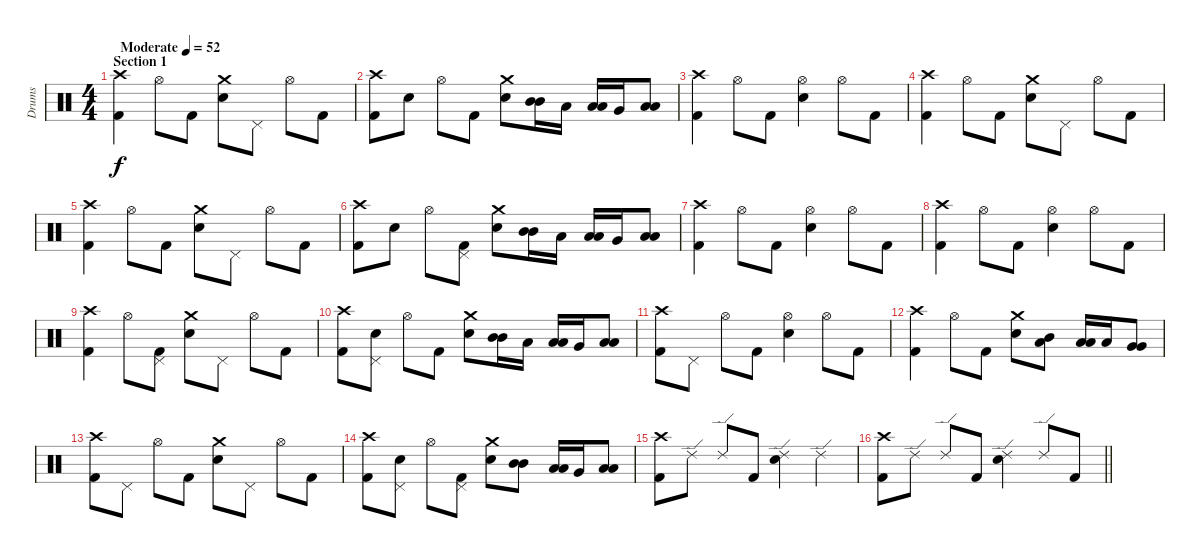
\track ("Drums" "Drums") {instrument percussion}
\staff {score}
\articulation defaults
\ts (4 4)
\section ("" "Section 1")
\tempo (52 "Moderate")
\clef neutral
\ks c
("Crash high (hit)" "Kick (hit) 2").4{dy f} "Hi-Hat (open)".8 "Kick (hit) 2".8 ("Crash medium (hit)" "Electric Snare (hit)").8 "Pedal Hi-Hat (hit)".8 "Hi-Hat (open)".8 "Kick (hit) 2".8 |
("Crash high (hit)" "Kick (hit) 2").8 "Electric Snare (hit)".8 "Hi-Hat (open)".8 "Kick (hit) 2".8 ("Crash medium (hit)" "Electric Snare (hit)").8 ("Mid Tom (hit)" "Mid Tom (hit)").16 "Low Tom (hit)".16 ("Low Tom (hit)" "Low Tom (hit)").16 "Very Low Tom (hit)".16 ("Low Floor Tom (hit)" "Low Floor Tom (hit)").8 |
("Crash high (hit)" "Kick (hit) 2").4 "Hi-Hat (open)".8 "Kick (hit) 2".8 ("Hi-Hat (open)" "Electric Snare (hit)").4 "Hi-Hat (open)".8 "Kick (hit) 2".8 |
("Crash high (hit)" "Kick (hit) 2").4 "Hi-Hat (open)".8 "Kick (hit) 2".8 ("Crash medium (hit)" "Electric Snare (hit)").8 "Pedal Hi-Hat (hit)".8 "Hi-Hat (open)".8 "Kick (hit) 2".8 |
("Crash high (hit)" "Kick (hit) 2").4 "Hi-Hat (open)".8 "Kick (hit) 2".8 ("Crash medium (hit)" "Electric Snare (hit)").8 "Pedal Hi-Hat (hit)".8 "Hi-Hat (open)".8 "Kick (hit) 2".8 |
("Crash high (hit)" "Kick (hit) 2").8 "Electric Snare (hit)".8 "Hi-Hat (open)".8 ("Pedal Hi-Hat (hit)" "Kick (hit) 2").8 ("Crash medium (hit)" "Electric Snare (hit)").8 ("Mid Tom (hit)" "Mid Tom (hit)").16 "Low Tom (hit)".16 ("Low Tom (hit)" "Low Tom (hit)").16 "Very Low Tom (hit)".16 ("Low Floor Tom (hit)" "Low Floor Tom (hit)").8 |
("Crash high (hit)" "Kick (hit) 2").4 "Hi-Hat (open)".8 "Kick (hit) 2".8 ("Hi-Hat (open)" "Electric Snare (hit)").4 "Hi-Hat (open)".8 "Kick (hit) 2".8 |
("Crash high (hit)" "Kick (hit) 2").4 "Hi-Hat (open)".8 "Kick (hit) 2".8 ("Hi-Hat (open)" "Electric Snare (hit)").4 "Hi-Hat (open)".8 "Kick (hit) 2".8 |
("Crash high (hit)" "Kick (hit) 2").4 "Hi-Hat (open)".8 ("Pedal Hi-Hat (hit)" "Kick (hit) 2").8 ("Crash medium (hit)" "Electric Snare (hit)").8 "Pedal Hi-Hat (hit)".8 "Hi-Hat (open)".8 "Kick (hit) 2".8 |
("Crash high (hit)" "Kick (hit) 2").8 ("Pedal Hi-Hat (hit)" "Electric Snare (hit)").8 "Hi-Hat (open)".8 "Kick (hit) 2".8 ("Crash medium (hit)" "Electric Snare (hit)").8 ("Mid Tom (hit)" "Mid Tom (hit)").16 "Low Tom (hit)".16 ("Low Tom (hit)" "Low Tom (hit)").16 "Very Low Tom (hit)".16 ("Low Floor Tom (hit)" "Low Floor Tom (hit)").8 |
("Crash high (hit)" "Kick (hit) 2").8 "Pedal Hi-Hat (hit)".8 "Hi-Hat (open)".8 "Kick (hit) 2".8 ("Hi-Hat (open)" "Electric Snare (hit)").4 "Hi-Hat (open)".8 "Kick (hit) 2".8 |
("Crash high (hit)" "Kick (hit) 2").4 "Hi-Hat (open)".8 "Kick (hit) 2".8 ("Crash medium (hit)" "Electric Snare (hit)").8 ("Mid Tom (hit)" "Low Floor Tom (hit)").8 ("Low Tom (hit)" "Low Tom (hit)").16 "Low Floor Tom (hit)".16 ("Very Low Tom (hit)" "Very Low Tom (hit)").8 |
("Crash high (hit)" "Kick (hit) 2").8 "Pedal Hi-Hat (hit)".8 "Hi-Hat (open)".8 "Kick (hit) 2".8 ("Crash medium (hit)" "Electric Snare (hit)").8 "Pedal Hi-Hat (hit)".8 "Hi-Hat (open)".8 "Kick (hit) 2".8 |
("Crash high (hit)" "Kick (hit) 2").8 ("Pedal Hi-Hat (hit)" "Electric Snare (hit)").8 "Hi-Hat (open)".8 ("Pedal Hi-Hat (hit)" "Kick (hit) 2").8 ("Crash medium (hit)" "Electric Snare (hit)").8 ("Mid Tom (hit)" "Mid Tom (hit)").8 ("Low Tom (hit)" "Low Tom (hit)").16 "Very Low Tom (hit)".16 ("Low Floor Tom (hit)" "Low Floor Tom (hit)").8 |
("Crash high (hit)" "Kick (hit) 2").8 "Ride (edge) 2".8 "Ride (edge) 2".8 "Kick (hit) 2".8 ("Ride (edge) 2" "Electric Snare (hit)").4 "Ride (edge) 2".4 |
\barLineRight lightlight
("Crash high (hit)" "Kick (hit) 2").8 "Ride (edge) 2".8 "Ride (edge) 2".8 "Kick (hit) 2".8 ("Ride (edge) 2" "Electric Snare (hit)").4 "Ride (edge) 2".8 "Kick (hit) 2".8
